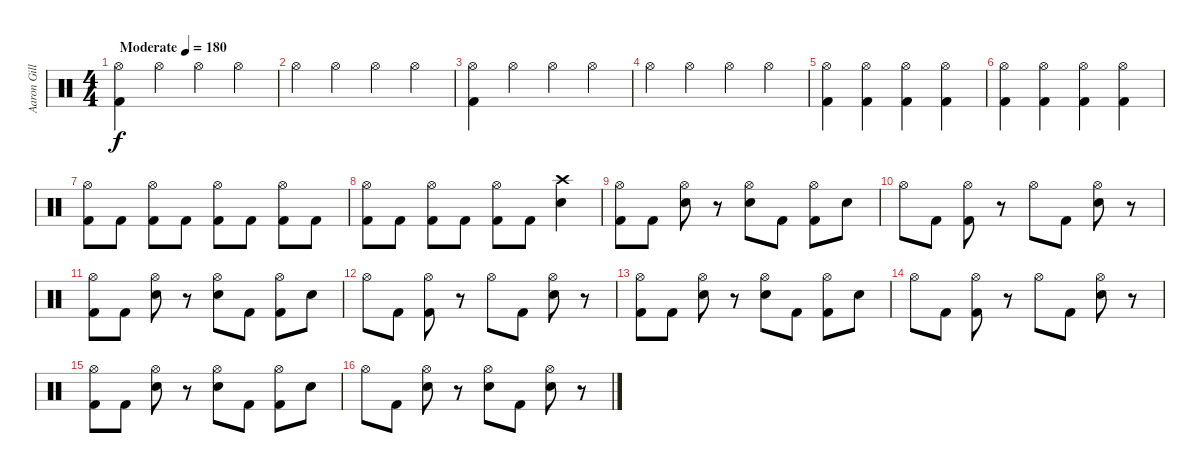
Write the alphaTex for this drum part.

\track ("Aaron Gillespie 1" "Aaron Gill") {instrument percussion}
\staff {score}
\articulation defaults
\ts (4 4)
\tempo (180 "Moderate")
\clef neutral
\ks c
("Hi-Hat (open)" "Kick (hit) 2").4{dy f} "Hi-Hat (open)".4 "Hi-Hat (open)".4 "Hi-Hat (open)".4 |
"Hi-Hat (open)".4 "Hi-Hat (open)".4 "Hi-Hat (open)".4 "Hi-Hat (open)".4 |
("Hi-Hat (open)" "Kick (hit) 2").4 "Hi-Hat (open)".4 "Hi-Hat (open)".4 "Hi-Hat (open)".4 |
"Hi-Hat (open)".4 "Hi-Hat (open)".4 "Hi-Hat (open)".4 "Hi-Hat (open)".4 |
("Hi-Hat (open)" "Kick (hit) 2").4 ("Hi-Hat (open)" "Kick (hit) 2").4 ("Hi-Hat (open)" "Kick (hit) 2").4 ("Hi-Hat (open)" "Kick (hit) 2").4 |
("Hi-Hat (open)" "Kick (hit) 2").4 ("Hi-Hat (open)" "Kick (hit) 2").4 ("Hi-Hat (open)" "Kick (hit) 2").4 ("Hi-Hat (open)" "Kick (hit) 2").4 |
("Hi-Hat (open)" "Kick (hit) 2").8 "Kick (hit) 2".8 ("Hi-Hat (open)" "Kick (hit) 2").8 "Kick (hit) 2".8 ("Hi-Hat (open)" "Kick (hit) 2").8 "Kick (hit) 2".8 ("Hi-Hat (open)" "Kick (hit) 2").8 "Kick (hit) 2".8 |
("Hi-Hat (open)" "Kick (hit) 2").8 "Kick (hit) 2".8 ("Hi-Hat (open)" "Kick (hit) 2").8 "Kick (hit) 2".8 ("Hi-Hat (open)" "Kick (hit) 2").8 "Kick (hit) 2".8 ("Crash high (hit)" "Snare (hit) 2").4 |
("Hi-Hat (open)" "Kick (hit) 2").8 "Kick (hit) 2".8 ("Hi-Hat (open)" "Snare (hit) 2").8 r.8 ("Hi-Hat (open)" "Snare (hit) 2").8 "Kick (hit) 2".8 ("Hi-Hat (open)" "Kick (hit) 2").8 "Snare (hit) 2".8 |
"Hi-Hat (open)".8 "Kick (hit) 2".8 ("Hi-Hat (open)" "Kick (hit) 2").8 r.8 "Hi-Hat (open)".8 "Kick (hit) 2".8 ("Hi-Hat (open)" "Snare (hit) 2").8 r.8 |
("Hi-Hat (open)" "Kick (hit) 2").8 "Kick (hit) 2".8 ("Hi-Hat (open)" "Snare (hit) 2").8 r.8 ("Hi-Hat (open)" "Snare (hit) 2").8 "Kick (hit) 2".8 ("Hi-Hat (open)" "Kick (hit) 2").8 "Snare (hit) 2".8 |
"Hi-Hat (open)".8 "Kick (hit) 2".8 ("Hi-Hat (open)" "Kick (hit) 2").8 r.8 "Hi-Hat (open)".8 "Kick (hit) 2".8 ("Hi-Hat (open)" "Snare (hit) 2").8 r.8 |
("Hi-Hat (open)" "Kick (hit) 2").8 "Kick (hit) 2".8 ("Hi-Hat (open)" "Snare (hit) 2").8 r.8 ("Hi-Hat (open)" "Snare (hit) 2").8 "Kick (hit) 2".8 ("Hi-Hat (open)" "Kick (hit) 2").8 "Snare (hit) 2".8 |
"Hi-Hat (open)".8 "Kick (hit) 2".8 ("Hi-Hat (open)" "Kick (hit) 2").8 r.8 "Hi-Hat (open)".8 "Kick (hit) 2".8 ("Hi-Hat (open)" "Snare (hit) 2").8 r.8 |
("Hi-Hat (open)" "Kick (hit) 2").8 "Kick (hit) 2".8 ("Hi-Hat (open)" "Snare (hit) 2").8 r.8 ("Hi-Hat (open)" "Snare (hit) 2").8 "Kick (hit) 2".8 ("Hi-Hat (open)" "Kick (hit) 2").8 "Snare (hit) 2".8 |
"Hi-Hat (open)".8 "Kick (hit) 2".8 ("Hi-Hat (open)" "Snare (hit) 2").8 r.8 ("Hi-Hat (open)" "Snare (hit) 2").8 "Kick (hit) 2".8 ("Hi-Hat (open)" "Snare (hit) 2").8 r.8
